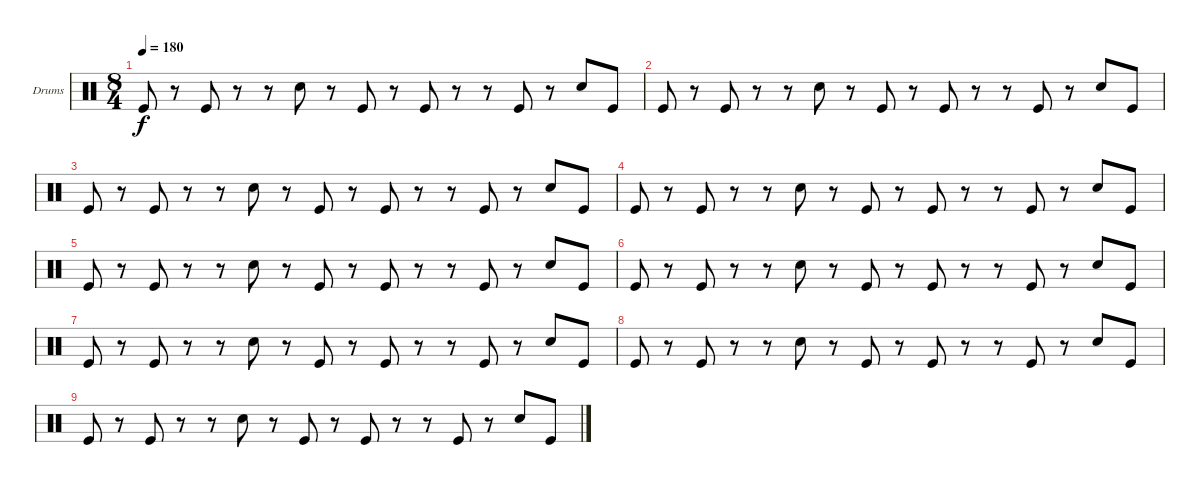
\defaultSystemsLayout 4
\bracketExtendMode groupsimilarinstruments
\firstSystemTrackNameOrientation horizontal
\otherSystemsTrackNameOrientation horizontal
\track ("Drumkit" "Drums") {instrument percussion}
\staff {score}
\articulation defaults
\ts (8 4)
\tempo 180
\clef neutral
\ks c "Kick (hit)".8{dy f}
r.8 "Kick (hit)".8 r.8 r.8 "Snare (hit) 2".8 r.8 "Kick (hit)".8 r.8 "Kick (hit)".8 r.8 r.8 "Kick (hit)".8 r.8 "Snare (hit) 2".8 "Kick (hit)".8 |
"Kick (hit)".8 r.8 "Kick (hit)".8 r.8 r.8 "Snare (hit) 2".8 r.8 "Kick (hit)".8 r.8 "Kick (hit)".8 r.8 r.8 "Kick (hit)".8 r.8 "Snare (hit) 2".8 "Kick (hit)".8 |
"Kick (hit)".8 r.8 "Kick (hit)".8 r.8 r.8 "Snare (hit) 2".8 r.8 "Kick (hit)".8 r.8 "Kick (hit)".8 r.8 r.8 "Kick (hit)".8 r.8 "Snare (hit) 2".8 "Kick (hit)".8 |
"Kick (hit)".8 r.8 "Kick (hit)".8 r.8 r.8 "Snare (hit) 2".8 r.8 "Kick (hit)".8 r.8 "Kick (hit)".8 r.8 r.8 "Kick (hit)".8 r.8 "Snare (hit) 2".8 "Kick (hit)".8 |
"Kick (hit)".8 r.8 "Kick (hit)".8 r.8 r.8 "Snare (hit) 2".8 r.8 "Kick (hit)".8 r.8 "Kick (hit)".8 r.8 r.8 "Kick (hit)".8 r.8 "Snare (hit) 2".8 "Kick (hit)".8 |
"Kick (hit)".8 r.8 "Kick (hit)".8 r.8 r.8 "Snare (hit) 2".8 r.8 "Kick (hit)".8 r.8 "Kick (hit)".8 r.8 r.8 "Kick (hit)".8 r.8 "Snare (hit) 2".8 "Kick (hit)".8 |
"Kick (hit)".8 r.8 "Kick (hit)".8 r.8 r.8 "Snare (hit) 2".8 r.8 "Kick (hit)".8 r.8 "Kick (hit)".8 r.8 r.8 "Kick (hit)".8 r.8 "Snare (hit) 2".8 "Kick (hit)".8 |
"Kick (hit)".8 r.8 "Kick (hit)".8 r.8 r.8 "Snare (hit) 2".8 r.8 "Kick (hit)".8 r.8 "Kick (hit)".8 r.8 r.8 "Kick (hit)".8 r.8 "Snare (hit) 2".8 "Kick (hit)".8 |
"Kick (hit)".8 r.8 "Kick (hit)".8 r.8 r.8 "Snare (hit) 2".8 r.8 "Kick (hit)".8 r.8 "Kick (hit)".8 r.8 r.8 "Kick (hit)".8 r.8 "Snare (hit) 2".8 "Kick (hit)".8
